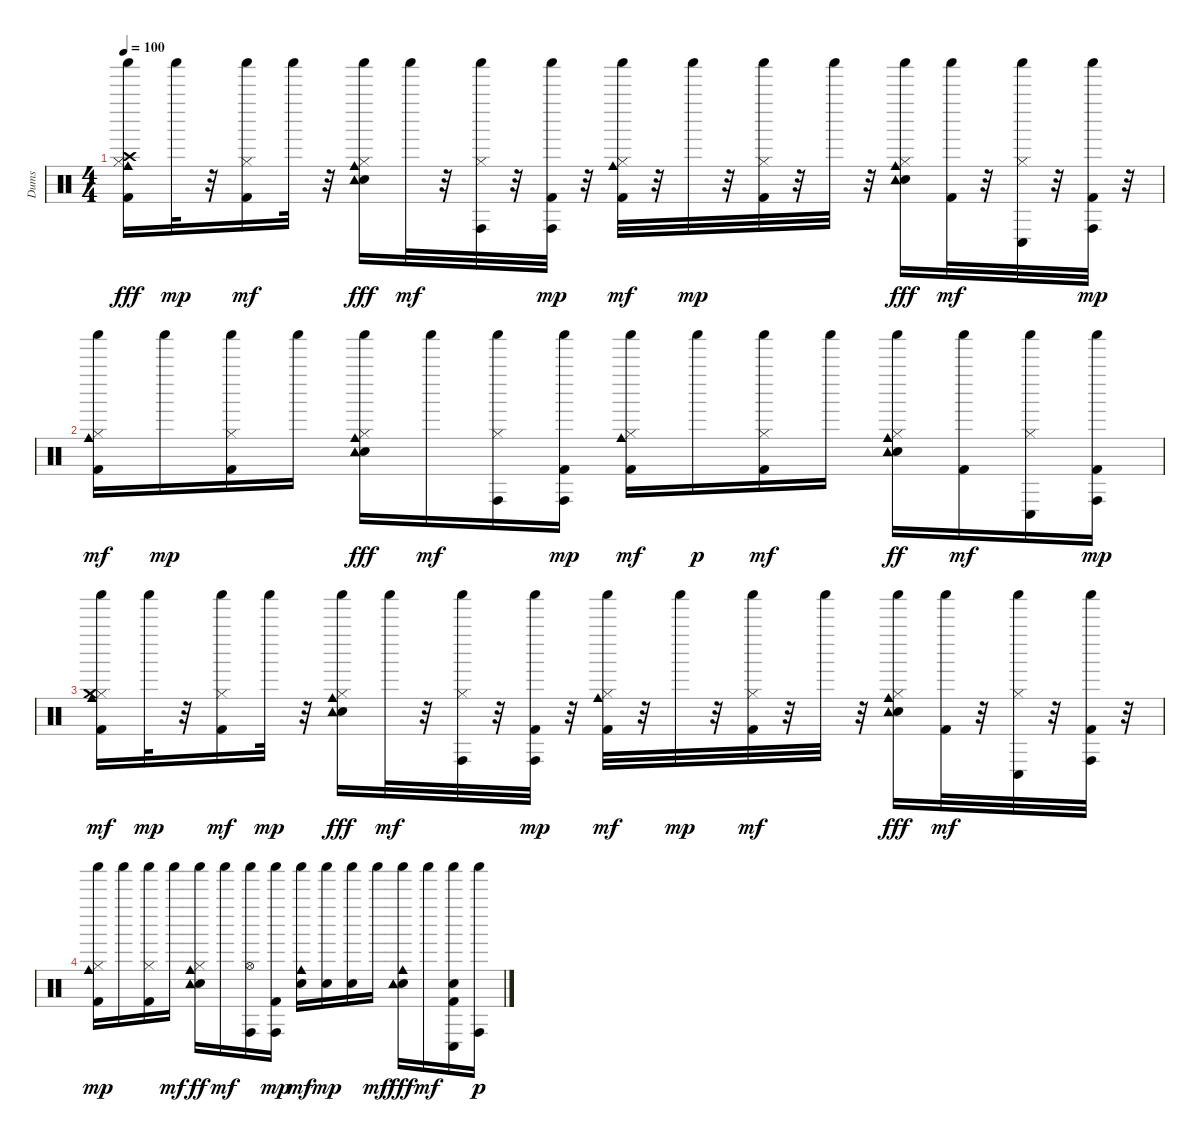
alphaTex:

\track ("Dums" "Dums") {instrument percussion}
\staff {score}
\articulation defaults
\ts (4 4)
\tempo 100
\clef neutral
\ks c
("Kick (hit) 2" "Hi-Hat (closed)" "Cowbell medium (hit)" "Crash high (hit)" "Shaker (hit)").16{dy fff} "Shaker (hit)".32{dy mp} r.32 ("Kick (hit) 2" "Hi-Hat (closed)" "Shaker (hit)").16{dy mf} "Shaker (hit)".32 r.32 ("Electric Snare (hit)" "Hi-Hat (closed)" "Cowbell medium (hit)" "Shaker (hit)" "Tambourine (hit)").16{dy fff} "Shaker (hit)".32{dy mf} r.32 ("Hi-Hat (closed)" "Conga high (hit)" "Shaker (hit)").32 r.32 ("Kick (hit) 2" "Conga high (hit)" "Shaker (hit)").32{dy mp} r.32 ("Kick (hit) 2" "Hi-Hat (closed)" "Cowbell medium (hit)" "Shaker (hit)").32{dy mf} r.32 "Shaker (hit)".32{dy mp} r.32 ("Kick (hit) 2" "Hi-Hat (closed)" "Shaker (hit)").32 r.32 "Shaker (hit)".32 r.32 ("Electric Snare (hit)" "Hi-Hat (closed)" "Cowbell medium (hit)" "Shaker (hit)" "Tambourine (hit)").16{dy fff} ("Kick (hit) 2" "Shaker (hit)").32{dy mf} r.32 ("Hi-Hat (closed)" "Conga low (hit)" "Shaker (hit)").32 r.32 ("Kick (hit) 2" "Conga high (hit)" "Shaker (hit)").32{dy mp} r.32 |
("Kick (hit) 2" "Hi-Hat (closed)" "Cowbell medium (hit)" "Shaker (hit)").16{dy mf} "Shaker (hit)".16{dy mp} ("Kick (hit) 2" "Hi-Hat (closed)" "Shaker (hit)").16 "Shaker (hit)".16 ("Electric Snare (hit)" "Hi-Hat (closed)" "Cowbell medium (hit)" "Shaker (hit)" "Tambourine (hit)").16{dy fff} "Shaker (hit)".16{dy mf} ("Hi-Hat (closed)" "Conga high (hit)" "Shaker (hit)").16 ("Kick (hit) 2" "Conga high (hit)" "Shaker (hit)").16{dy mp} ("Kick (hit) 2" "Hi-Hat (closed)" "Cowbell medium (hit)" "Shaker (hit)").16{dy mf} "Shaker (hit)".16{dy p} ("Kick (hit) 2" "Hi-Hat (closed)" "Shaker (hit)").16{dy mf} "Shaker (hit)".16 ("Electric Snare (hit)" "Hi-Hat (closed)" "Cowbell medium (hit)" "Shaker (hit)" "Tambourine (hit)").16{dy ff} ("Kick (hit) 2" "Shaker (hit)").16{dy mf} ("Hi-Hat (closed)" "Conga low (hit)" "Shaker (hit)").16 ("Kick (hit) 2" "Conga high (hit)" "Shaker (hit)").16{dy mp} |
("Kick (hit) 2" "Hi-Hat (closed)" "Cowbell medium (hit)" "Crash medium (hit)" "Shaker (hit)").16{dy mf} "Shaker (hit)".32{dy mp} r.32 ("Kick (hit) 2" "Hi-Hat (closed)" "Shaker (hit)").16{dy mf} "Shaker (hit)".32{dy mp} r.32 ("Electric Snare (hit)" "Hi-Hat (closed)" "Cowbell medium (hit)" "Shaker (hit)" "Tambourine (hit)").16{dy fff} "Shaker (hit)".32{dy mf} r.32 ("Hi-Hat (closed)" "Conga high (hit)" "Shaker (hit)").32 r.32 ("Kick (hit) 2" "Conga high (hit)" "Shaker (hit)").32{dy mp} r.32 ("Kick (hit) 2" "Hi-Hat (closed)" "Cowbell medium (hit)" "Shaker (hit)").32{dy mf} r.32 "Shaker (hit)".32{dy mp} r.32 ("Kick (hit) 2" "Hi-Hat (closed)" "Shaker (hit)").32{dy mf} r.32 "Shaker (hit)".32 r.32 ("Electric Snare (hit)" "Hi-Hat (closed)" "Cowbell medium (hit)" "Shaker (hit)" "Tambourine (hit)").16{dy fff} ("Kick (hit) 2" "Shaker (hit)").32{dy mf} r.32 ("Hi-Hat (closed)" "Conga low (hit)" "Shaker (hit)").32 r.32 ("Kick (hit) 2" "Conga high (hit)" "Shaker (hit)").32 r.32 |
("Kick (hit) 2" "Cowbell medium (hit)" "Hi-Hat (closed)" "Shaker (hit)").16{dy mp} "Shaker (hit)".16 ("Kick (hit) 2" "Hi-Hat (closed)" "Shaker (hit)").16 "Shaker (hit)".16{dy mf} ("Electric Snare (hit)" "Cowbell medium (hit)" "Tambourine (hit)" "Hi-Hat (closed)" "Shaker (hit)").16{dy ff} "Shaker (hit)".16{dy mf} ("Hi-Hat (open)" "Conga high (hit)" "Shaker (hit)").16 ("Kick (hit) 2" "Conga high (hit)" "Shaker (hit)").16{dy mp} ("Electric Snare (hit)" "Cowbell medium (hit)" "Shaker (hit)").16{dy mf} ("Electric Snare (hit)" "Shaker (hit)").16{dy mp} ("Electric Snare (hit)" "Shaker (hit)").16 "Shaker (hit)".16{dy mf} ("Electric Snare (hit)" "Cowbell medium (hit)" "Tambourine (hit)" "Shaker (hit)").16{dy fff} "Shaker (hit)".16{dy mf} ("Electric Snare (hit)" "Kick (hit) 2" "Conga low (hit)" "Shaker (hit)").16 ("Conga high (hit)" "Shaker (hit)").16{dy p}
